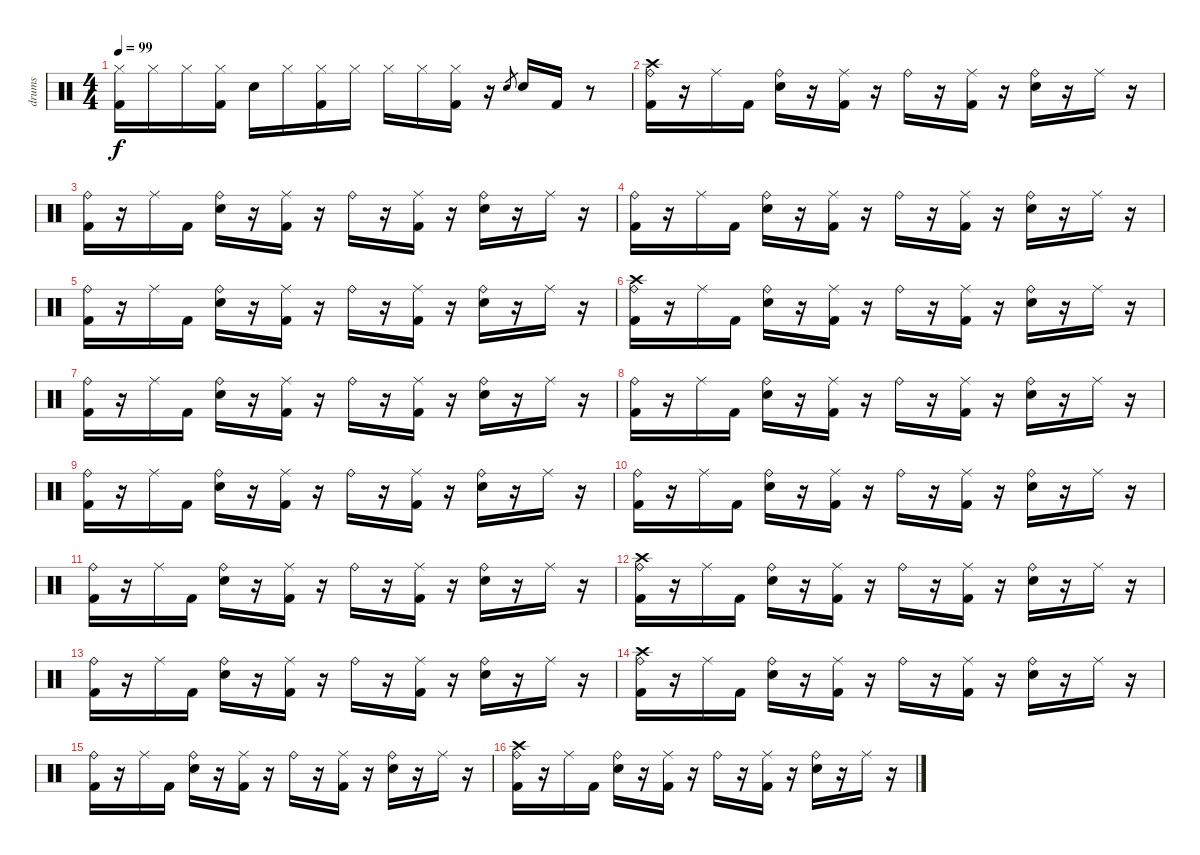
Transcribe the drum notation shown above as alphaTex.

\track ("drums" "drums") {instrument percussion}
\staff {score}
\articulation defaults
\ts (4 4)
\tempo 99
\clef neutral
\ks c
("Hi-Hat (closed)" "Kick (hit) 2").16{dy f} "Hi-Hat (closed)".16 "Hi-Hat (closed)".16 ("Hi-Hat (closed)" "Kick (hit) 2").16 "Snare (hit) 2".16 "Hi-Hat (closed)".16 ("Hi-Hat (closed)" "Kick (hit) 2").16 "Hi-Hat (closed)".16 "Hi-Hat (closed)"{nh}.16 "Hi-Hat (closed)".16 ("Hi-Hat (closed)" "Kick (hit) 2").16 r.16 "Snare (hit) 2".8{gr} "Snare (hit) 2".16 "Kick (hit) 2".16 r.8 |
("Crash high (hit)" "Ride (bell)" "Kick (hit) 2").16 r.16 "Ride (middle)".16 "Kick (hit) 2".16 ("Ride (bell)" "Snare (hit) 2").16 r.16 ("Ride (middle)" "Kick (hit) 2").16 r.16 "Ride (bell)"{nh}.16 r.16 ("Ride (middle)" "Kick (hit) 2").16 r.16 ("Ride (bell)" "Snare (hit) 2").16 r.16 "Ride (middle)".16 r.16 |
("Ride (bell)" "Kick (hit) 2").16 r.16 "Ride (middle)".16 "Kick (hit) 2".16 ("Ride (bell)" "Snare (hit) 2").16 r.16 ("Ride (middle)" "Kick (hit) 2").16 r.16 "Ride (bell)"{nh}.16 r.16 ("Ride (middle)" "Kick (hit) 2").16 r.16 ("Ride (bell)" "Snare (hit) 2").16 r.16 "Ride (middle)".16 r.16 |
("Ride (bell)" "Kick (hit) 2").16 r.16 "Ride (middle)".16 "Kick (hit) 2".16 ("Ride (bell)" "Snare (hit) 2").16 r.16 ("Ride (middle)" "Kick (hit) 2").16 r.16 "Ride (bell)"{nh}.16 r.16 ("Ride (middle)" "Kick (hit) 2").16 r.16 ("Ride (bell)" "Snare (hit) 2").16 r.16 "Ride (middle)".16 r.16 |
("Ride (bell)" "Kick (hit) 2").16 r.16 "Ride (middle)".16 "Kick (hit) 2".16 ("Ride (bell)" "Snare (hit) 2").16 r.16 ("Ride (middle)" "Kick (hit) 2").16 r.16 "Ride (bell)"{nh}.16 r.16 ("Ride (middle)" "Kick (hit) 2").16 r.16 ("Ride (bell)" "Snare (hit) 2").16 r.16 "Ride (middle)".16 r.16 |
("Crash high (hit)" "Ride (bell)" "Kick (hit) 2").16 r.16 "Ride (middle)".16 "Kick (hit) 2".16 ("Ride (bell)" "Snare (hit) 2").16 r.16 ("Ride (middle)" "Kick (hit) 2").16 r.16 "Ride (bell)"{nh}.16 r.16 ("Ride (middle)" "Kick (hit) 2").16 r.16 ("Ride (bell)" "Snare (hit) 2").16 r.16 "Ride (middle)".16 r.16 |
("Ride (bell)" "Kick (hit) 2").16 r.16 "Ride (middle)".16 "Kick (hit) 2".16 ("Ride (bell)" "Snare (hit) 2").16 r.16 ("Ride (middle)" "Kick (hit) 2").16 r.16 "Ride (bell)"{nh}.16 r.16 ("Ride (middle)" "Kick (hit) 2").16 r.16 ("Ride (bell)" "Snare (hit) 2").16 r.16 "Ride (middle)".16 r.16 |
("Ride (bell)" "Kick (hit) 2").16 r.16 "Ride (middle)".16 "Kick (hit) 2".16 ("Ride (bell)" "Snare (hit) 2").16 r.16 ("Ride (middle)" "Kick (hit) 2").16 r.16 "Ride (bell)"{nh}.16 r.16 ("Ride (middle)" "Kick (hit) 2").16 r.16 ("Ride (bell)" "Snare (hit) 2").16 r.16 "Ride (middle)".16 r.16 |
("Ride (bell)" "Kick (hit) 2").16 r.16 "Ride (middle)".16 "Kick (hit) 2".16 ("Ride (bell)" "Snare (hit) 2").16 r.16 ("Ride (middle)" "Kick (hit) 2").16 r.16 "Ride (bell)"{nh}.16 r.16 ("Ride (middle)" "Kick (hit) 2").16 r.16 ("Ride (bell)" "Snare (hit) 2").16 r.16 "Ride (middle)".16 r.16 |
("Ride (bell)" "Kick (hit) 2").16 r.16 "Ride (middle)".16 "Kick (hit) 2".16 ("Ride (bell)" "Snare (hit) 2").16 r.16 ("Ride (middle)" "Kick (hit) 2").16 r.16 "Ride (bell)"{nh}.16 r.16 ("Ride (middle)" "Kick (hit) 2").16 r.16 ("Ride (bell)" "Snare (hit) 2").16 r.16 "Ride (middle)".16 r.16 |
("Ride (bell)" "Kick (hit) 2").16 r.16 "Ride (middle)".16 "Kick (hit) 2".16 ("Ride (bell)" "Snare (hit) 2").16 r.16 ("Ride (middle)" "Kick (hit) 2").16 r.16 "Ride (bell)"{nh}.16 r.16 ("Ride (middle)" "Kick (hit) 2").16 r.16 ("Ride (bell)" "Snare (hit) 2").16 r.16 "Ride (middle)".16 r.16 |
("Crash high (hit)" "Ride (bell)" "Kick (hit) 2").16 r.16 "Ride (middle)".16 "Kick (hit) 2".16 ("Ride (bell)" "Snare (hit) 2").16 r.16 ("Ride (middle)" "Kick (hit) 2").16 r.16 "Ride (bell)"{nh}.16 r.16 ("Ride (middle)" "Kick (hit) 2").16 r.16 ("Ride (bell)" "Snare (hit) 2").16 r.16 "Ride (middle)".16 r.16 |
("Ride (bell)" "Kick (hit) 2").16 r.16 "Ride (middle)".16 "Kick (hit) 2".16 ("Ride (bell)" "Snare (hit) 2").16 r.16 ("Ride (middle)" "Kick (hit) 2").16 r.16 "Ride (bell)"{nh}.16 r.16 ("Ride (middle)" "Kick (hit) 2").16 r.16 ("Ride (bell)" "Snare (hit) 2").16 r.16 "Ride (middle)".16 r.16 |
("Crash high (hit)" "Ride (bell)" "Kick (hit) 2").16 r.16 "Ride (middle)".16 "Kick (hit) 2".16 ("Ride (bell)" "Snare (hit) 2").16 r.16 ("Ride (middle)" "Kick (hit) 2").16 r.16 "Ride (bell)"{nh}.16 r.16 ("Ride (middle)" "Kick (hit) 2").16 r.16 ("Ride (bell)" "Snare (hit) 2").16 r.16 "Ride (middle)".16 r.16 |
("Ride (bell)" "Kick (hit) 2").16 r.16 "Ride (middle)".16 "Kick (hit) 2".16 ("Ride (bell)" "Snare (hit) 2").16 r.16 ("Ride (middle)" "Kick (hit) 2").16 r.16 "Ride (bell)"{nh}.16 r.16 ("Ride (middle)" "Kick (hit) 2").16 r.16 ("Ride (bell)" "Snare (hit) 2").16 r.16 "Ride (middle)".16 r.16 |
("Crash high (hit)" "Ride (bell)" "Kick (hit) 2").16 r.16 "Ride (middle)".16 "Kick (hit) 2".16 ("Ride (bell)" "Snare (hit) 2").16 r.16 ("Ride (middle)" "Kick (hit) 2").16 r.16 "Ride (bell)"{nh}.16 r.16 ("Ride (middle)" "Kick (hit) 2").16 r.16 ("Ride (bell)" "Snare (hit) 2").16 r.16 "Ride (middle)".16 r.16
